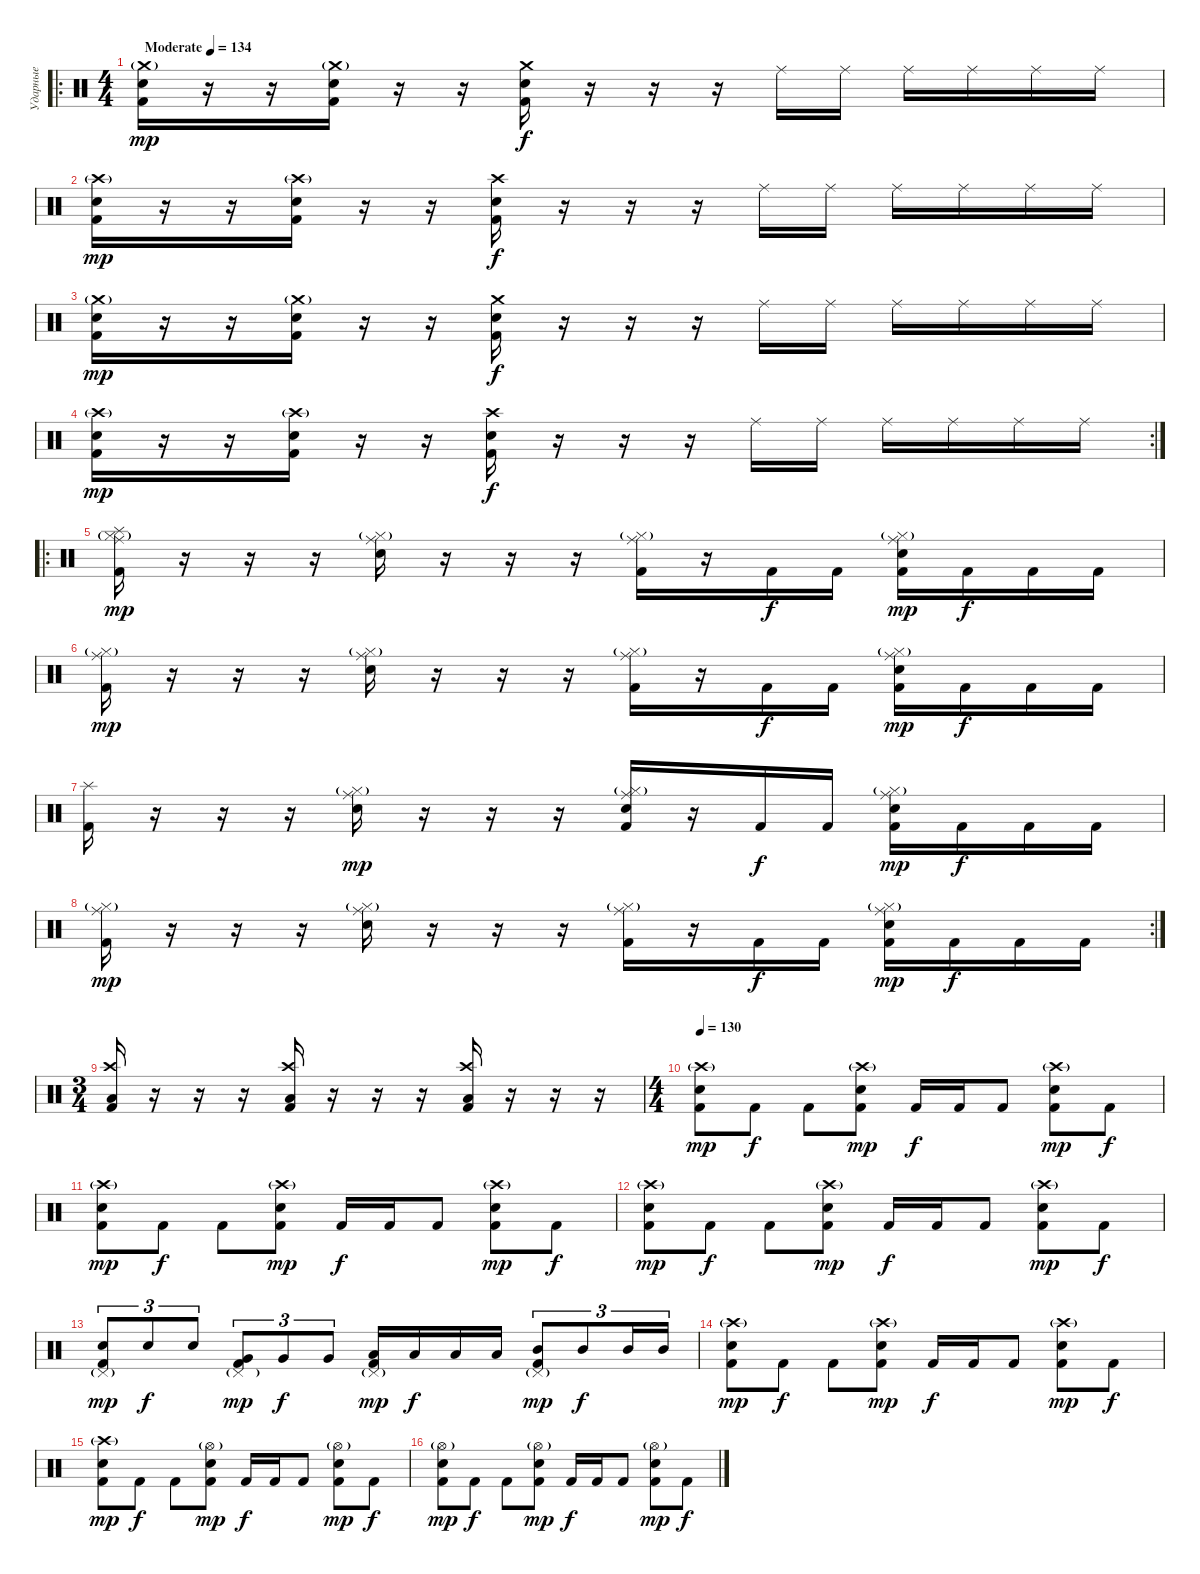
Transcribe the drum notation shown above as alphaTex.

\track ("Ударные" "Ударные") {instrument percussion}
\staff {score}
\articulation defaults
\ro
\ts (4 4)
\tempo (134 "Moderate")
\clef neutral
\ks c
("Crash medium (hit)"{g} "Electric Snare (hit)" "Kick (hit) 2").16{dy mp} r.16 r.16 ("Crash medium (hit)"{g} "Electric Snare (hit)" "Kick (hit) 2").16 r.16 r.16 ("Crash medium (hit)" "Electric Snare (hit)" "Kick (hit) 2").16{dy f} r.16 r.16 r.16 "Ride (middle)".16 "Ride (middle)".16 "Ride (middle)".16 "Ride (middle)".16 "Ride (middle)".16 "Ride (middle)".16 |
("Crash high (hit)"{g} "Electric Snare (hit)" "Kick (hit) 2").16{dy mp} r.16 r.16 ("Crash high (hit)"{g} "Electric Snare (hit)" "Kick (hit) 2").16 r.16 r.16 ("Crash high (hit)" "Electric Snare (hit)" "Kick (hit) 2").16{dy f} r.16 r.16 r.16 "Ride (middle)".16 "Ride (middle)".16 "Ride (middle)".16 "Ride (middle)".16 "Ride (middle)".16 "Ride (middle)".16 |
("Crash medium (hit)"{g} "Electric Snare (hit)" "Kick (hit) 2").16{dy mp} r.16 r.16 ("Crash medium (hit)"{g} "Electric Snare (hit)" "Kick (hit) 2").16 r.16 r.16 ("Crash medium (hit)" "Electric Snare (hit)" "Kick (hit) 2").16{dy f} r.16 r.16 r.16 "Ride (middle)".16 "Ride (middle)".16 "Ride (middle)".16 "Ride (middle)".16 "Ride (middle)".16 "Ride (middle)".16 |
\rc 2
("Crash high (hit)"{g} "Electric Snare (hit)" "Kick (hit) 2").16{dy mp} r.16 r.16 ("Crash high (hit)"{g} "Electric Snare (hit)" "Kick (hit) 2").16 r.16 r.16 ("Crash high (hit)" "Electric Snare (hit)" "Kick (hit) 2").16{dy f} r.16 r.16 r.16 "Ride (middle)".16 "Ride (middle)".16 "Ride (middle)".16 "Ride (middle)".16 "Ride (middle)".16 "Ride (middle)".16 |
\ro
("Hi-Hat (closed)"{g} "Ride (middle)" "Splash (hit)" "Kick (hit) 2").16{dy mp} r.16 r.16 r.16 ("Hi-Hat (closed)"{g} "Ride (middle)" "Electric Snare (hit)").16 r.16 r.16 r.16 ("Hi-Hat (closed)"{g} "Ride (middle)" "Kick (hit) 2").16 r.16 "Kick (hit) 2".16{dy f} "Kick (hit) 2".16 ("Hi-Hat (closed)"{g} "Ride (middle)" "Electric Snare (hit)" "Kick (hit) 2").16{dy mp} "Kick (hit) 2".16{dy f} "Kick (hit) 2".16 "Kick (hit) 2".16 |
("Hi-Hat (closed)"{g} "Ride (middle)" "Kick (hit) 2").16{dy mp} r.16 r.16 r.16 ("Hi-Hat (closed)"{g} "Ride (middle)" "Electric Snare (hit)").16 r.16 r.16 r.16 ("Hi-Hat (closed)"{g} "Ride (middle)" "Kick (hit) 2").16 r.16 "Kick (hit) 2".16{dy f} "Kick (hit) 2".16 ("Hi-Hat (closed)"{g} "Ride (middle)" "Electric Snare (hit)" "Kick (hit) 2").16{dy mp} "Kick (hit) 2".16{dy f} "Kick (hit) 2".16 "Kick (hit) 2".16 |
("Splash (hit)" "Kick (hit) 2").16 r.16 r.16 r.16 ("Hi-Hat (closed)"{g} "Ride (middle)" "Electric Snare (hit)").16{dy mp} r.16 r.16 r.16 ("Hi-Hat (closed)"{g} "Ride (middle)" "Snare (hit)" "Kick (hit) 2").16 r.16 "Kick (hit) 2".16{dy f} "Kick (hit) 2".16 ("Hi-Hat (closed)"{g} "Ride (middle)" "Electric Snare (hit)" "Kick (hit) 2").16{dy mp} "Kick (hit) 2".16{dy f} "Kick (hit) 2".16 "Kick (hit) 2".16 |
\rc 2
("Hi-Hat (closed)"{g} "Ride (middle)" "Kick (hit) 2").16{dy mp} r.16 r.16 r.16 ("Hi-Hat (closed)"{g} "Ride (middle)" "Electric Snare (hit)").16 r.16 r.16 r.16 ("Hi-Hat (closed)"{g} "Ride (middle)" "Kick (hit) 2").16 r.16 "Kick (hit) 2".16{dy f} "Kick (hit) 2".16 ("Hi-Hat (closed)"{g} "Ride (middle)" "Electric Snare (hit)" "Kick (hit) 2").16{dy mp} "Kick (hit) 2".16{dy f} "Kick (hit) 2".16 "Kick (hit) 2".16 |
\ts (3 4)
("Low Floor Tom (hit)" "Crash high (hit)" "Kick (hit) 2").16 r.16 r.16 r.16 ("Low Floor Tom (hit)" "Crash high (hit)" "Kick (hit) 2").16 r.16 r.16 r.16 ("Low Floor Tom (hit)" "Crash high (hit)" "Kick (hit) 2").16 r.16 r.16 r.16 |
\ts (4 4)
\tempo 130
("Crash high (hit)"{g} "Electric Snare (hit)" "Kick (hit) 2").8{dy mp} "Kick (hit) 2".8{dy f} "Kick (hit) 2".8 ("Crash high (hit)"{g} "Electric Snare (hit)" "Kick (hit) 2").8{dy mp} "Kick (hit) 2".16{dy f} "Kick (hit) 2".16 "Kick (hit) 2".8 ("Crash high (hit)"{g} "Electric Snare (hit)" "Kick (hit) 2").8{dy mp} "Kick (hit) 2".8{dy f} |
("Crash high (hit)"{g} "Electric Snare (hit)" "Kick (hit) 2").8{dy mp} "Kick (hit) 2".8{dy f} "Kick (hit) 2".8 ("Crash high (hit)"{g} "Electric Snare (hit)" "Kick (hit) 2").8{dy mp} "Kick (hit) 2".16{dy f} "Kick (hit) 2".16 "Kick (hit) 2".8 ("Crash high (hit)"{g} "Electric Snare (hit)" "Kick (hit) 2").8{dy mp} "Kick (hit) 2".8{dy f} |
("Crash high (hit)"{g} "Electric Snare (hit)" "Kick (hit) 2").8{dy mp} "Kick (hit) 2".8{dy f} "Kick (hit) 2".8 ("Crash high (hit)"{g} "Electric Snare (hit)" "Kick (hit) 2").8{dy mp} "Kick (hit) 2".16{dy f} "Kick (hit) 2".16 "Kick (hit) 2".8 ("Crash high (hit)"{g} "Electric Snare (hit)" "Kick (hit) 2").8{dy mp} "Kick (hit) 2".8{dy f} |
("Pedal Hi-Hat (hit)"{g} "Electric Snare (hit)" "Kick (hit) 2").8{tu (3 2) dy mp} "Electric Snare (hit)".8{tu (3 2) dy f} "Electric Snare (hit)".8{tu (3 2)} ("Pedal Hi-Hat (hit)"{g} "Very Low Tom (hit)" "Kick (hit) 2").8{tu (3 2) dy mp} "Very Low Tom (hit)".8{tu (3 2) dy f} "Very Low Tom (hit)".8{tu (3 2)} ("Pedal Hi-Hat (hit)"{g} "Low Tom (hit)" "Kick (hit) 2").16{dy mp} "Low Tom (hit)".16{dy f} "Low Tom (hit)".16 "Low Tom (hit)".16 ("Pedal Hi-Hat (hit)"{g} "Mid Tom (hit)" "Kick (hit) 2").8{tu (3 2) dy mp} "Mid Tom (hit)".8{tu (3 2) dy f} "Mid Tom (hit)".16{tu (3 2)} "Mid Tom (hit)".16{tu (3 2)} |
("Crash high (hit)"{g} "Electric Snare (hit)" "Kick (hit) 2").8{dy mp} "Kick (hit) 2".8{dy f} "Kick (hit) 2".8 ("Crash high (hit)"{g} "Electric Snare (hit)" "Kick (hit) 2").8{dy mp} "Kick (hit) 2".16{dy f} "Kick (hit) 2".16 "Kick (hit) 2".8 ("Crash high (hit)"{g} "Electric Snare (hit)" "Kick (hit) 2").8{dy mp} "Kick (hit) 2".8{dy f} |
("Crash high (hit)"{g} "Electric Snare (hit)" "Kick (hit) 2").8{dy mp} "Kick (hit) 2".8{dy f} "Kick (hit) 2".8 ("Hi-Hat (open)"{g} "Electric Snare (hit)" "Kick (hit) 2").8{dy mp} "Kick (hit) 2".16{dy f} "Kick (hit) 2".16 "Kick (hit) 2".8 ("Hi-Hat (open)"{g} "Electric Snare (hit)" "Kick (hit) 2").8{dy mp} "Kick (hit) 2".8{dy f} |
("Hi-Hat (open)"{g} "Electric Snare (hit)" "Kick (hit) 2").8{dy mp} "Kick (hit) 2".8{dy f} "Kick (hit) 2".8 ("Hi-Hat (open)"{g} "Electric Snare (hit)" "Kick (hit) 2").8{dy mp} "Kick (hit) 2".16{dy f} "Kick (hit) 2".16 "Kick (hit) 2".8 ("Hi-Hat (open)"{g} "Electric Snare (hit)" "Kick (hit) 2").8{dy mp} "Kick (hit) 2".8{dy f}
